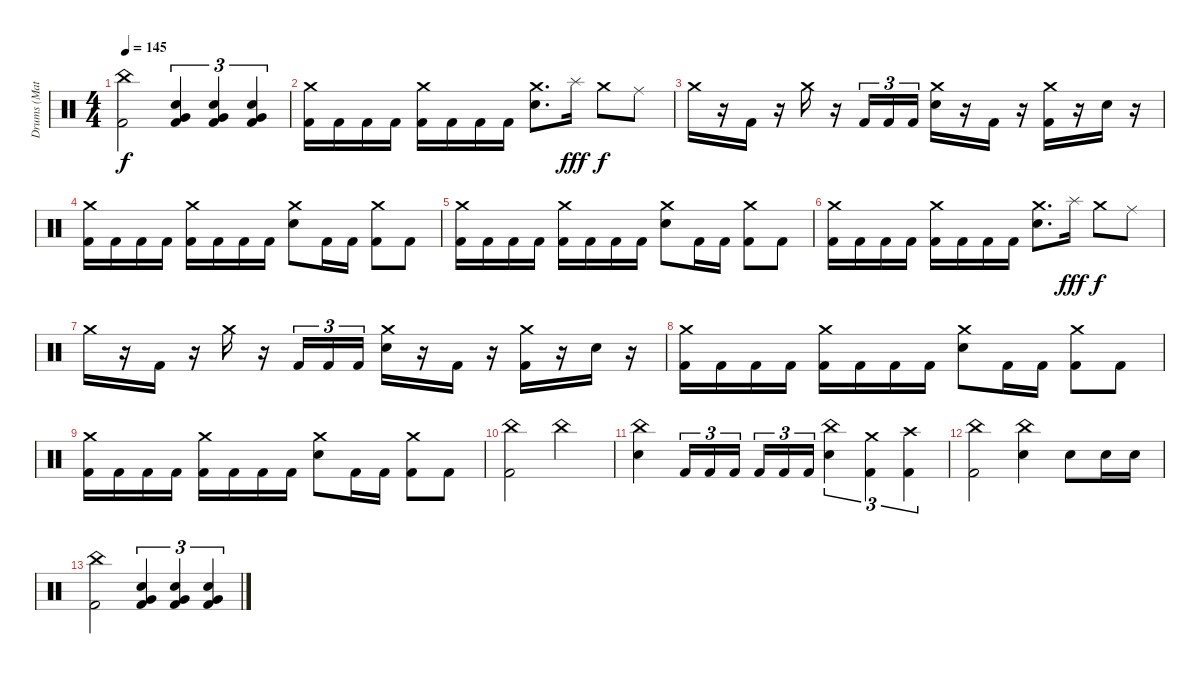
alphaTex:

\track ("Drums (Matt Kuykendall)" "Drums (Mat") {instrument percussion}
\staff {score}
\articulation defaults
\ts (4 4)
\tempo 145
\clef neutral
\ks c
("China (hit)" "Kick (hit) 2").2{dy f} ("Very Low Tom (hit)" "Electric Snare (hit)" "Kick (hit) 2").4{tu (3 2)} ("Very Low Tom (hit)" "Electric Snare (hit)" "Kick (hit) 2").4{tu (3 2)} ("Very Low Tom (hit)" "Electric Snare (hit)" "Kick (hit) 2").4{tu (3 2)} |
("Crash medium (hit)" "Kick (hit) 2").16 "Kick (hit) 2".16 "Kick (hit) 2".16 "Kick (hit) 2".16 ("Crash medium (hit)" "Kick (hit) 2").16 "Kick (hit) 2".16 "Kick (hit) 2".16 "Kick (hit) 2".16 ("Crash medium (hit)" "Electric Snare (hit)").8{d} "Splash (hit)".16{dy fff} "Crash medium (hit)".8{dy f} "Ride (middle)".8 |
"Crash medium (hit)".16 r.16 "Kick (hit) 2".16 r.16 "Crash medium (hit)".16 r.16 "Kick (hit) 2".16{tu (3 2)} "Kick (hit) 2".16{tu (3 2)} "Kick (hit) 2".16{tu (3 2)} ("Crash medium (hit)" "Electric Snare (hit)").16 r.16 "Kick (hit) 2".16 r.16 ("Crash medium (hit)" "Kick (hit) 2").16 r.16 "Electric Snare (hit)".16 r.16 |
("Crash medium (hit)" "Kick (hit) 2").16 "Kick (hit) 2".16 "Kick (hit) 2".16 "Kick (hit) 2".16 ("Crash medium (hit)" "Kick (hit) 2").16 "Kick (hit) 2".16 "Kick (hit) 2".16 "Kick (hit) 2".16 ("Crash medium (hit)" "Electric Snare (hit)").8 "Kick (hit) 2".16 "Kick (hit) 2".16 ("Crash medium (hit)" "Kick (hit) 2").8 "Kick (hit) 2".8 |
("Crash medium (hit)" "Kick (hit) 2").16 "Kick (hit) 2".16 "Kick (hit) 2".16 "Kick (hit) 2".16 ("Crash medium (hit)" "Kick (hit) 2").16 "Kick (hit) 2".16 "Kick (hit) 2".16 "Kick (hit) 2".16 ("Crash medium (hit)" "Electric Snare (hit)").8 "Kick (hit) 2".16 "Kick (hit) 2".16 ("Crash medium (hit)" "Kick (hit) 2").8 "Kick (hit) 2".8 |
("Crash medium (hit)" "Kick (hit) 2").16 "Kick (hit) 2".16 "Kick (hit) 2".16 "Kick (hit) 2".16 ("Crash medium (hit)" "Kick (hit) 2").16 "Kick (hit) 2".16 "Kick (hit) 2".16 "Kick (hit) 2".16 ("Crash medium (hit)" "Electric Snare (hit)").8{d} "Splash (hit)".16{dy fff} "Crash medium (hit)".8{dy f} "Ride (middle)".8 |
"Crash medium (hit)".16 r.16 "Kick (hit) 2".16 r.16 "Crash medium (hit)".16 r.16 "Kick (hit) 2".16{tu (3 2)} "Kick (hit) 2".16{tu (3 2)} "Kick (hit) 2".16{tu (3 2)} ("Crash medium (hit)" "Electric Snare (hit)").16 r.16 "Kick (hit) 2".16 r.16 ("Crash medium (hit)" "Kick (hit) 2").16 r.16 "Electric Snare (hit)".16 r.16 |
("Crash medium (hit)" "Kick (hit) 2").16 "Kick (hit) 2".16 "Kick (hit) 2".16 "Kick (hit) 2".16 ("Crash medium (hit)" "Kick (hit) 2").16 "Kick (hit) 2".16 "Kick (hit) 2".16 "Kick (hit) 2".16 ("Crash medium (hit)" "Electric Snare (hit)").8 "Kick (hit) 2".16 "Kick (hit) 2".16 ("Crash medium (hit)" "Kick (hit) 2").8 "Kick (hit) 2".8 |
("Crash medium (hit)" "Kick (hit) 2").16 "Kick (hit) 2".16 "Kick (hit) 2".16 "Kick (hit) 2".16 ("Crash medium (hit)" "Kick (hit) 2").16 "Kick (hit) 2".16 "Kick (hit) 2".16 "Kick (hit) 2".16 ("Crash medium (hit)" "Electric Snare (hit)").8 "Kick (hit) 2".16 "Kick (hit) 2".16 ("Crash medium (hit)" "Kick (hit) 2").8 "Kick (hit) 2".8 |
("China (hit)" "Kick (hit) 2").2 "China (hit)".2 |
("China (hit)" "Electric Snare (hit)").4 "Kick (hit) 2".16{tu (3 2)} "Kick (hit) 2".16{tu (3 2)} "Kick (hit) 2".16{tu (3 2) beam splitsecondary} "Kick (hit) 2".16{tu (3 2)} "Kick (hit) 2".16{tu (3 2)} "Kick (hit) 2".16{tu (3 2)} ("China (hit)" "Electric Snare (hit)").4{tu (3 2)} ("Crash medium (hit)" "Kick (hit) 2").4{tu (3 2)} ("Crash high (hit)" "Kick (hit) 2").4{tu (3 2)} |
("China (hit)" "Kick (hit) 2").2 ("China (hit)" "Electric Snare (hit)").4 "Electric Snare (hit)".8 "Electric Snare (hit)".16 "Electric Snare (hit)".16 |
("China (hit)" "Kick (hit) 2").2 ("Very Low Tom (hit)" "Electric Snare (hit)" "Kick (hit) 2").4{tu (3 2)} ("Very Low Tom (hit)" "Electric Snare (hit)" "Kick (hit) 2").4{tu (3 2)} ("Very Low Tom (hit)" "Electric Snare (hit)" "Kick (hit) 2").4{tu (3 2)}
